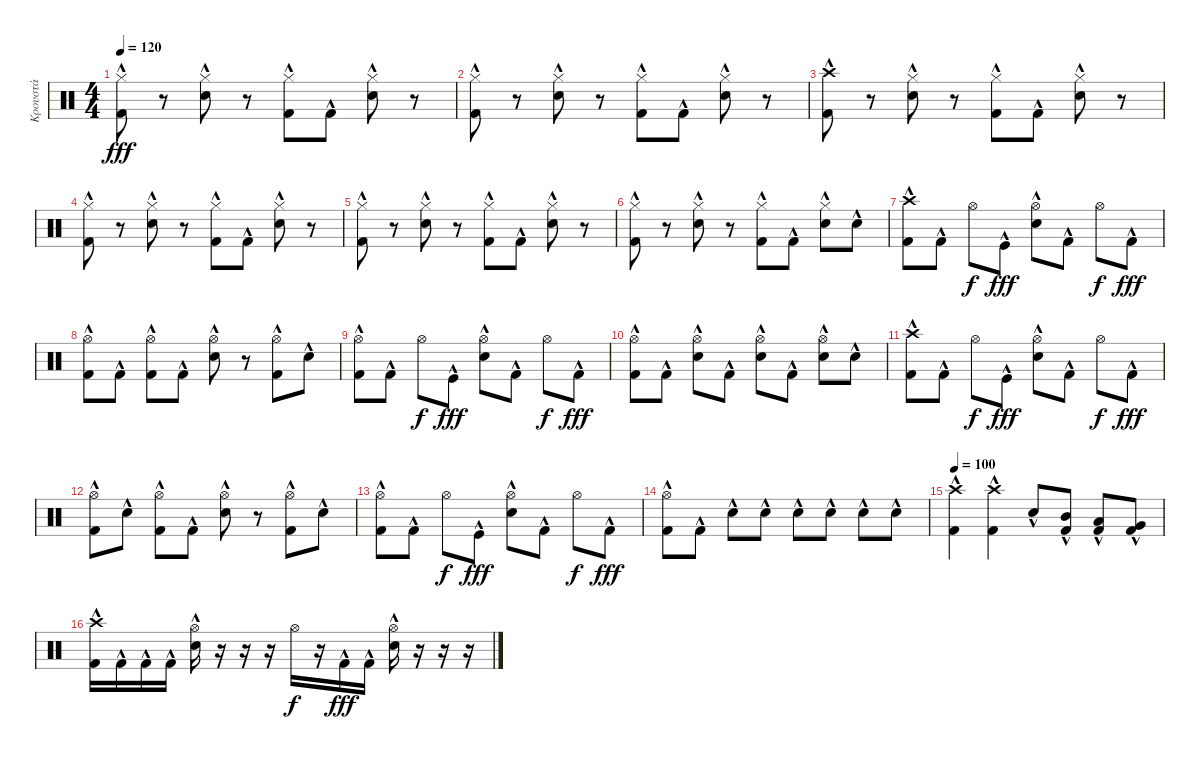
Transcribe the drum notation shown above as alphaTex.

\track ("Κρουστά" "Κρουστά") {instrument percussion}
\staff {score}
\articulation defaults
\ts (4 4)
\tempo 120
\clef neutral
\ks c
("Kick (hit) 2"{hac} "Hi-Hat (closed)").8{dy fff} r.8 ("Electric Snare (hit)"{hac} "Hi-Hat (closed)").8 r.8 ("Kick (hit) 2"{hac} "Hi-Hat (closed)").8 "Kick (hit) 2"{hac}.8 ("Electric Snare (hit)"{hac} "Hi-Hat (closed)").8 r.8 |
("Kick (hit) 2"{hac} "Hi-Hat (closed)").8 r.8 ("Electric Snare (hit)"{hac} "Hi-Hat (closed)").8 r.8 ("Kick (hit) 2"{hac} "Hi-Hat (closed)").8 "Kick (hit) 2"{hac}.8 ("Electric Snare (hit)"{hac} "Hi-Hat (closed)").8 r.8 |
("Kick (hit) 2"{hac} "Crash high (hit)").8 r.8 ("Electric Snare (hit)"{hac} "Hi-Hat (closed)").8 r.8 ("Kick (hit) 2"{hac} "Hi-Hat (closed)").8 "Kick (hit) 2"{hac}.8 ("Electric Snare (hit)"{hac} "Hi-Hat (closed)").8 r.8 |
("Kick (hit) 2"{hac} "Hi-Hat (closed)").8 r.8 ("Electric Snare (hit)"{hac} "Hi-Hat (closed)").8 r.8 ("Kick (hit) 2"{hac} "Hi-Hat (closed)").8 "Kick (hit) 2"{hac}.8 ("Electric Snare (hit)"{hac} "Hi-Hat (closed)").8 r.8 |
("Kick (hit) 2"{hac} "Hi-Hat (closed)").8 r.8 ("Electric Snare (hit)"{hac} "Hi-Hat (closed)").8 r.8 ("Kick (hit) 2"{hac} "Hi-Hat (closed)").8 "Kick (hit) 2"{hac}.8 ("Electric Snare (hit)"{hac} "Hi-Hat (closed)").8 r.8 |
("Kick (hit) 2"{hac} "Hi-Hat (closed)").8 r.8 ("Electric Snare (hit)"{hac} "Hi-Hat (closed)").8 r.8 ("Kick (hit) 2"{hac} "Hi-Hat (closed)").8 "Kick (hit) 2"{hac}.8 ("Electric Snare (hit)"{hac} "Hi-Hat (closed)").8 "Electric Snare (hit)"{hac}.8 |
("Kick (hit) 2"{hac} "Crash high (hit)").8 "Kick (hit) 2"{hac}.8 "Hi-Hat (open)".8{dy f} "Kick (hit)"{hac}.8{dy fff} ("Electric Snare (hit)"{hac} "Hi-Hat (open)").8 "Kick (hit) 2"{hac}.8 "Hi-Hat (open)".8{dy f} "Kick (hit) 2"{hac}.8{dy fff} |
("Kick (hit) 2"{hac} "Hi-Hat (open)").8 "Kick (hit) 2"{hac}.8 ("Kick (hit) 2"{hac} "Hi-Hat (open)").8 "Kick (hit) 2"{hac}.8 ("Electric Snare (hit)"{hac} "Hi-Hat (open)").8 r.8 ("Kick (hit) 2"{hac} "Hi-Hat (open)").8 "Electric Snare (hit)"{hac}.8 |
("Kick (hit) 2"{hac} "Hi-Hat (open)").8 "Kick (hit) 2"{hac}.8 "Hi-Hat (open)".8{dy f} "Kick (hit)"{hac}.8{dy fff} ("Electric Snare (hit)"{hac} "Hi-Hat (open)").8 "Kick (hit) 2"{hac}.8 "Hi-Hat (open)".8{dy f} "Kick (hit) 2"{hac}.8{dy fff} |
("Kick (hit) 2"{hac} "Hi-Hat (open)").8 "Kick (hit) 2"{hac}.8 ("Electric Snare (hit)"{hac} "Hi-Hat (open)").8 "Kick (hit) 2"{hac}.8 ("Electric Snare (hit)"{hac} "Hi-Hat (open)").8 "Kick (hit) 2"{hac}.8 ("Electric Snare (hit)"{hac} "Hi-Hat (open)").8 "Electric Snare (hit)"{hac}.8 |
("Kick (hit) 2"{hac} "Crash high (hit)").8 "Kick (hit) 2"{hac}.8 "Hi-Hat (open)".8{dy f} "Kick (hit)"{hac}.8{dy fff} ("Electric Snare (hit)"{hac} "Hi-Hat (open)").8 "Kick (hit) 2"{hac}.8 "Hi-Hat (open)".8{dy f} "Kick (hit) 2"{hac}.8{dy fff} |
("Kick (hit) 2"{hac} "Hi-Hat (open)").8 "Electric Snare (hit)"{hac}.8 ("Kick (hit) 2"{hac} "Hi-Hat (open)").8 "Kick (hit) 2"{hac}.8 ("Electric Snare (hit)"{hac} "Hi-Hat (open)").8 r.8 ("Kick (hit) 2"{hac} "Hi-Hat (open)").8 "Electric Snare (hit)"{hac}.8 |
("Kick (hit) 2"{hac} "Hi-Hat (open)").8 "Kick (hit) 2"{hac}.8 "Hi-Hat (open)".8{dy f} "Kick (hit)"{hac}.8{dy fff} ("Electric Snare (hit)"{hac} "Hi-Hat (open)").8 "Kick (hit) 2"{hac}.8 "Hi-Hat (open)".8{dy f} "Kick (hit) 2"{hac}.8{dy fff} |
("Kick (hit) 2"{hac} "Hi-Hat (open)").8 "Kick (hit) 2"{hac}.8 "Electric Snare (hit)"{hac}.8 "Electric Snare (hit)"{hac}.8 "Electric Snare (hit)"{hac}.8 "Electric Snare (hit)"{hac}.8 "Electric Snare (hit)"{hac}.8 "Electric Snare (hit)"{hac}.8 |
\tempo 100
("Kick (hit) 2"{hac} "Crash high (hit)").4 ("Kick (hit) 2"{hac} "Crash high (hit)").4 "Electric Snare (hit)"{hac}.8 ("Mid Tom (hit)" "Kick (hit) 2"{hac}).8 ("Low Tom (hit)" "Kick (hit) 2"{hac}).8 ("Very Low Tom (hit)" "Kick (hit) 2"{hac}).8 |
("Kick (hit) 2"{hac} "Crash high (hit)").16 "Kick (hit) 2"{hac}.16 "Kick (hit) 2"{hac}.16 "Kick (hit) 2"{hac}.16 ("Electric Snare (hit)"{hac} "Hi-Hat (open)").16 r.16 r.16 r.16 "Hi-Hat (open)".16{dy f} r.16 "Kick (hit) 2"{hac}.16{dy fff} "Kick (hit) 2"{hac}.16 ("Electric Snare (hit)"{hac} "Hi-Hat (open)").16 r.16 r.16 r.16
